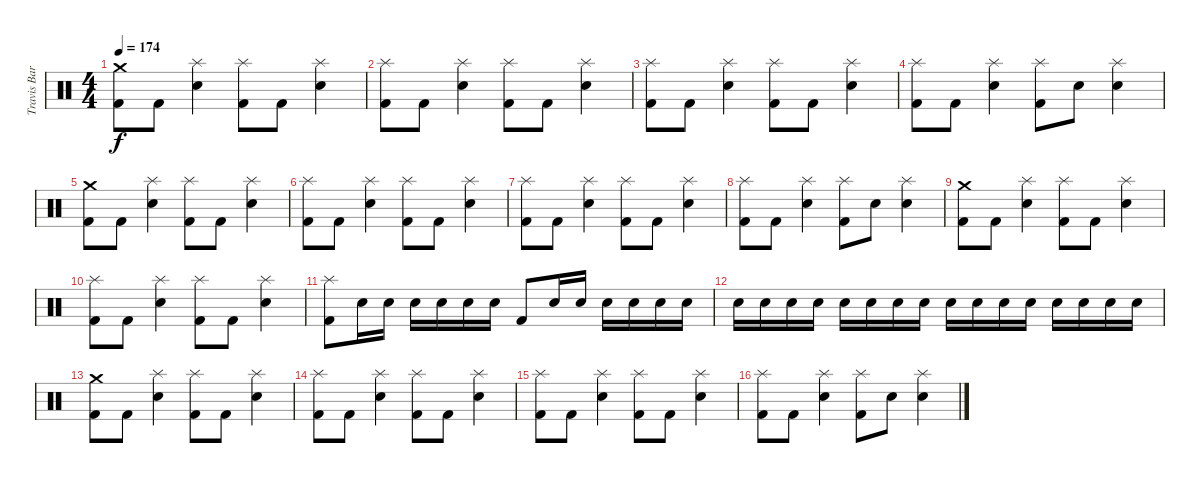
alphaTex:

\track ("Travis Barker - Drums" "Travis Bar") {instrument percussion}
\staff {score}
\articulation defaults
\ts (4 4)
\tempo 174
\clef neutral
\ks c
("Crash medium (hit)" "Kick (hit) 2").8{dy f} "Kick (hit) 2".8 ("Splash (hit)" "Electric Snare (hit)").4 ("Splash (hit)" "Kick (hit) 2").8 "Kick (hit) 2".8 ("Splash (hit)" "Electric Snare (hit)").4 |
("Splash (hit)" "Kick (hit) 2").8 "Kick (hit) 2".8 ("Splash (hit)" "Electric Snare (hit)").4 ("Splash (hit)" "Kick (hit) 2").8 "Kick (hit) 2".8 ("Splash (hit)" "Electric Snare (hit)").4 |
("Splash (hit)" "Kick (hit) 2").8 "Kick (hit) 2".8 ("Splash (hit)" "Electric Snare (hit)").4 ("Splash (hit)" "Kick (hit) 2").8 "Kick (hit) 2".8 ("Splash (hit)" "Electric Snare (hit)").4 |
("Splash (hit)" "Kick (hit) 2").8 "Kick (hit) 2".8 ("Splash (hit)" "Electric Snare (hit)").4 ("Splash (hit)" "Kick (hit) 2").8 "Electric Snare (hit)".8 ("Splash (hit)" "Electric Snare (hit)").4 |
("Crash medium (hit)" "Kick (hit) 2").8 "Kick (hit) 2".8 ("Splash (hit)" "Electric Snare (hit)").4 ("Splash (hit)" "Kick (hit) 2").8 "Kick (hit) 2".8 ("Splash (hit)" "Electric Snare (hit)").4 |
("Splash (hit)" "Kick (hit) 2").8 "Kick (hit) 2".8 ("Splash (hit)" "Electric Snare (hit)").4 ("Splash (hit)" "Kick (hit) 2").8 "Kick (hit) 2".8 ("Splash (hit)" "Electric Snare (hit)").4 |
("Splash (hit)" "Kick (hit) 2").8 "Kick (hit) 2".8 ("Splash (hit)" "Electric Snare (hit)").4 ("Splash (hit)" "Kick (hit) 2").8 "Kick (hit) 2".8 ("Splash (hit)" "Electric Snare (hit)").4 |
("Splash (hit)" "Kick (hit) 2").8 "Kick (hit) 2".8 ("Splash (hit)" "Electric Snare (hit)").4 ("Splash (hit)" "Kick (hit) 2").8 "Electric Snare (hit)".8 ("Splash (hit)" "Electric Snare (hit)").4 |
("Crash medium (hit)" "Kick (hit) 2").8 "Kick (hit) 2".8 ("Splash (hit)" "Electric Snare (hit)").4 ("Splash (hit)" "Kick (hit) 2").8 "Kick (hit) 2".8 ("Splash (hit)" "Electric Snare (hit)").4 |
("Splash (hit)" "Kick (hit) 2").8 "Kick (hit) 2".8 ("Splash (hit)" "Electric Snare (hit)").4 ("Splash (hit)" "Kick (hit) 2").8 "Kick (hit) 2".8 ("Splash (hit)" "Electric Snare (hit)").4 |
("Splash (hit)" "Kick (hit) 2").8 "Electric Snare (hit)".16 "Electric Snare (hit)".16 "Electric Snare (hit)".16 "Electric Snare (hit)".16 "Electric Snare (hit)".16 "Electric Snare (hit)".16 "Kick (hit) 2".8 "Electric Snare (hit)".16 "Electric Snare (hit)".16 "Electric Snare (hit)".16 "Electric Snare (hit)".16 "Electric Snare (hit)".16 "Electric Snare (hit)".16 |
"Electric Snare (hit)".16 "Electric Snare (hit)".16 "Electric Snare (hit)".16 "Electric Snare (hit)".16 "Electric Snare (hit)".16 "Electric Snare (hit)".16 "Electric Snare (hit)".16 "Electric Snare (hit)".16 "Electric Snare (hit)".16 "Electric Snare (hit)".16 "Electric Snare (hit)".16 "Electric Snare (hit)".16 "Electric Snare (hit)".16 "Electric Snare (hit)".16 "Electric Snare (hit)".16 "Electric Snare (hit)".16 |
("Crash medium (hit)" "Kick (hit) 2").8 "Kick (hit) 2".8 ("Splash (hit)" "Electric Snare (hit)").4 ("Splash (hit)" "Kick (hit) 2").8 "Kick (hit) 2".8 ("Splash (hit)" "Electric Snare (hit)").4 |
("Splash (hit)" "Kick (hit) 2").8 "Kick (hit) 2".8 ("Splash (hit)" "Electric Snare (hit)").4 ("Splash (hit)" "Kick (hit) 2").8 "Kick (hit) 2".8 ("Splash (hit)" "Electric Snare (hit)").4 |
("Splash (hit)" "Kick (hit) 2").8 "Kick (hit) 2".8 ("Splash (hit)" "Electric Snare (hit)").4 ("Splash (hit)" "Kick (hit) 2").8 "Kick (hit) 2".8 ("Splash (hit)" "Electric Snare (hit)").4 |
("Splash (hit)" "Kick (hit) 2").8 "Kick (hit) 2".8 ("Splash (hit)" "Electric Snare (hit)").4 ("Splash (hit)" "Kick (hit) 2").8 "Electric Snare (hit)".8 ("Splash (hit)" "Electric Snare (hit)").4
